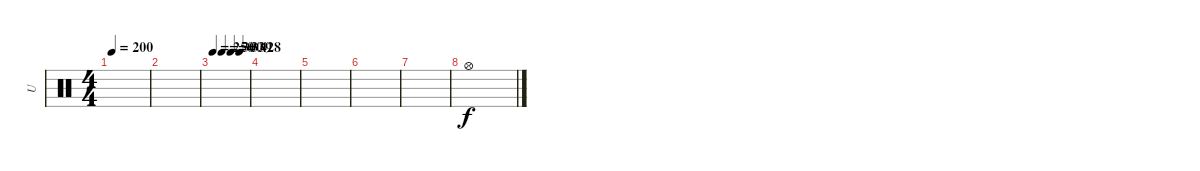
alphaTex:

\track ("U" "U") {instrument percussion}
\staff {score}
\articulation defaults
\ts (4 4)
\tempo 200
\clef neutral
\ks c
|
|
\tempo 250
\tempo (300 0.25)
\tempo (339 0.5)
\tempo (428 0.75)
|
|
|
|
|
"Hi-Hat (open)".1
